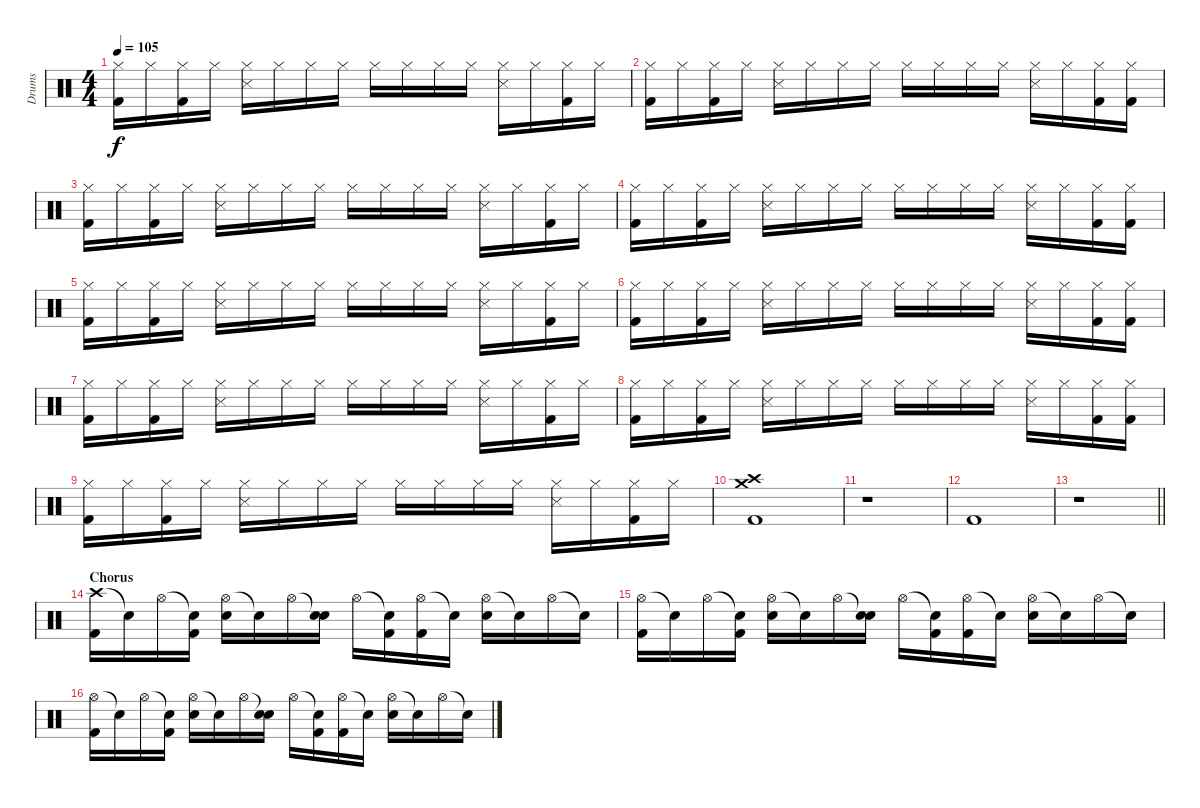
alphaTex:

\track ("Drums" "Drums") {instrument percussion}
\staff {score}
\articulation defaults
\ts (4 4)
\tempo 105
\clef neutral
\ks c
("Hi-Hat (closed)" "Kick (hit) 2").16{dy f} "Hi-Hat (closed)".16 ("Hi-Hat (closed)" "Kick (hit) 2").16 "Hi-Hat (closed)".16 ("Hi-Hat (closed)" "Snare (side stick) 3").16 "Hi-Hat (closed)".16 "Hi-Hat (closed)".16 "Hi-Hat (closed)".16 "Hi-Hat (closed)".16 "Hi-Hat (closed)".16 "Hi-Hat (closed)".16 "Hi-Hat (closed)".16 ("Hi-Hat (closed)" "Snare (side stick) 3").16 "Hi-Hat (closed)".16 ("Hi-Hat (closed)" "Kick (hit) 2").16 "Hi-Hat (closed)".16 |
("Hi-Hat (closed)" "Kick (hit) 2").16 "Hi-Hat (closed)".16 ("Hi-Hat (closed)" "Kick (hit) 2").16 "Hi-Hat (closed)".16 ("Hi-Hat (closed)" "Snare (side stick) 3").16 "Hi-Hat (closed)".16 "Hi-Hat (closed)".16 "Hi-Hat (closed)".16 "Hi-Hat (closed)".16 "Hi-Hat (closed)".16 "Hi-Hat (closed)".16 "Hi-Hat (closed)".16 ("Hi-Hat (closed)" "Snare (side stick) 3").16 "Hi-Hat (closed)".16 ("Hi-Hat (closed)" "Kick (hit) 2").16 ("Hi-Hat (closed)" "Kick (hit) 2").16 |
("Hi-Hat (closed)" "Kick (hit) 2").16 "Hi-Hat (closed)".16 ("Hi-Hat (closed)" "Kick (hit) 2").16 "Hi-Hat (closed)".16 ("Hi-Hat (closed)" "Snare (side stick) 3").16 "Hi-Hat (closed)".16 "Hi-Hat (closed)".16 "Hi-Hat (closed)".16 "Hi-Hat (closed)".16 "Hi-Hat (closed)".16 "Hi-Hat (closed)".16 "Hi-Hat (closed)".16 ("Hi-Hat (closed)" "Snare (side stick) 3").16 "Hi-Hat (closed)".16 ("Hi-Hat (closed)" "Kick (hit) 2").16 "Hi-Hat (closed)".16 |
("Hi-Hat (closed)" "Kick (hit) 2").16 "Hi-Hat (closed)".16 ("Hi-Hat (closed)" "Kick (hit) 2").16 "Hi-Hat (closed)".16 ("Hi-Hat (closed)" "Snare (side stick) 3").16 "Hi-Hat (closed)".16 "Hi-Hat (closed)".16 "Hi-Hat (closed)".16 "Hi-Hat (closed)".16 "Hi-Hat (closed)".16 "Hi-Hat (closed)".16 "Hi-Hat (closed)".16 ("Hi-Hat (closed)" "Snare (side stick) 3").16 "Hi-Hat (closed)".16 ("Hi-Hat (closed)" "Kick (hit) 2").16 ("Hi-Hat (closed)" "Kick (hit) 2").16 |
("Hi-Hat (closed)" "Kick (hit) 2").16 "Hi-Hat (closed)".16 ("Hi-Hat (closed)" "Kick (hit) 2").16 "Hi-Hat (closed)".16 ("Hi-Hat (closed)" "Snare (side stick) 3").16 "Hi-Hat (closed)".16 "Hi-Hat (closed)".16 "Hi-Hat (closed)".16 "Hi-Hat (closed)".16 "Hi-Hat (closed)".16 "Hi-Hat (closed)".16 "Hi-Hat (closed)".16 ("Hi-Hat (closed)" "Snare (side stick) 3").16 "Hi-Hat (closed)".16 ("Hi-Hat (closed)" "Kick (hit) 2").16 "Hi-Hat (closed)".16 |
("Hi-Hat (closed)" "Kick (hit) 2").16 "Hi-Hat (closed)".16 ("Hi-Hat (closed)" "Kick (hit) 2").16 "Hi-Hat (closed)".16 ("Hi-Hat (closed)" "Snare (side stick) 3").16 "Hi-Hat (closed)".16 "Hi-Hat (closed)".16 "Hi-Hat (closed)".16 "Hi-Hat (closed)".16 "Hi-Hat (closed)".16 "Hi-Hat (closed)".16 "Hi-Hat (closed)".16 ("Hi-Hat (closed)" "Snare (side stick) 3").16 "Hi-Hat (closed)".16 ("Hi-Hat (closed)" "Kick (hit) 2").16 ("Hi-Hat (closed)" "Kick (hit) 2").16 |
("Hi-Hat (closed)" "Kick (hit) 2").16 "Hi-Hat (closed)".16 ("Hi-Hat (closed)" "Kick (hit) 2").16 "Hi-Hat (closed)".16 ("Hi-Hat (closed)" "Snare (side stick) 3").16 "Hi-Hat (closed)".16 "Hi-Hat (closed)".16 "Hi-Hat (closed)".16 "Hi-Hat (closed)".16 "Hi-Hat (closed)".16 "Hi-Hat (closed)".16 "Hi-Hat (closed)".16 ("Hi-Hat (closed)" "Snare (side stick) 3").16 "Hi-Hat (closed)".16 ("Hi-Hat (closed)" "Kick (hit) 2").16 "Hi-Hat (closed)".16 |
("Hi-Hat (closed)" "Kick (hit) 2").16 "Hi-Hat (closed)".16 ("Hi-Hat (closed)" "Kick (hit) 2").16 "Hi-Hat (closed)".16 ("Hi-Hat (closed)" "Snare (side stick) 3").16 "Hi-Hat (closed)".16 "Hi-Hat (closed)".16 "Hi-Hat (closed)".16 "Hi-Hat (closed)".16 "Hi-Hat (closed)".16 "Hi-Hat (closed)".16 "Hi-Hat (closed)".16 ("Hi-Hat (closed)" "Snare (side stick) 3").16 "Hi-Hat (closed)".16 ("Hi-Hat (closed)" "Kick (hit) 2").16 ("Hi-Hat (closed)" "Kick (hit) 2").16 |
("Hi-Hat (closed)" "Kick (hit) 2").16 "Hi-Hat (closed)".16 ("Hi-Hat (closed)" "Kick (hit) 2").16 "Hi-Hat (closed)".16 ("Hi-Hat (closed)" "Snare (side stick) 3").16 "Hi-Hat (closed)".16 "Hi-Hat (closed)".16 "Hi-Hat (closed)".16 "Hi-Hat (closed)".16 "Hi-Hat (closed)".16 "Hi-Hat (closed)".16 "Hi-Hat (closed)".16 ("Hi-Hat (closed)" "Snare (side stick) 3").16 "Hi-Hat (closed)".16 ("Hi-Hat (closed)" "Kick (hit) 2").16 "Hi-Hat (closed)".16 |
("Crash high (hit)" "Crash medium (hit)" "Kick (hit) 2").1 |
r.1 |
"Kick (hit) 2".1 |
\barLineRight lightlight
r.1 |
\section ("" "Chorus")
("Crash high (hit)" "Kick (hit) 2").16 "Snare (hit)"{t}.16 "Hi-Hat (open)".16 ("Snare (hit)"{t} "Kick (hit) 2").16 ("Hi-Hat (open)" "Electric Snare (hit)").16 "Snare (hit)"{t}.16 "Hi-Hat (open)".16 ("Snare (hit)"{t} "Electric Snare (hit)").16 "Hi-Hat (open)".16 ("Snare (hit)"{t} "Kick (hit) 2").16 ("Hi-Hat (open)" "Kick (hit) 2").16 "Snare (hit)"{t}.16 ("Hi-Hat (open)" "Electric Snare (hit)").16 "Snare (hit)"{t}.16 "Hi-Hat (open)".16 "Snare (hit)"{t}.16 |
("Hi-Hat (open)" "Kick (hit) 2").16 "Snare (hit)"{t}.16 "Hi-Hat (open)".16 ("Snare (hit)"{t} "Kick (hit) 2").16 ("Hi-Hat (open)" "Electric Snare (hit)").16 "Snare (hit)"{t}.16 "Hi-Hat (open)".16 ("Snare (hit)"{t} "Electric Snare (hit)").16 "Hi-Hat (open)".16 ("Snare (hit)"{t} "Kick (hit) 2").16 ("Hi-Hat (open)" "Kick (hit) 2").16 "Snare (hit)"{t}.16 ("Hi-Hat (open)" "Electric Snare (hit)").16 "Snare (hit)"{t}.16 "Hi-Hat (open)".16 "Snare (hit)"{t}.16 |
("Hi-Hat (open)" "Kick (hit) 2").16 "Snare (hit)"{t}.16 "Hi-Hat (open)".16 ("Snare (hit)"{t} "Kick (hit) 2").16 ("Hi-Hat (open)" "Electric Snare (hit)").16 "Snare (hit)"{t}.16 "Hi-Hat (open)".16 ("Snare (hit)"{t} "Electric Snare (hit)").16 "Hi-Hat (open)".16 ("Snare (hit)"{t} "Kick (hit) 2").16 ("Hi-Hat (open)" "Kick (hit) 2").16 "Snare (hit)"{t}.16 ("Hi-Hat (open)" "Electric Snare (hit)").16 "Snare (hit)"{t}.16 "Hi-Hat (open)".16 "Snare (hit)"{t}.16
